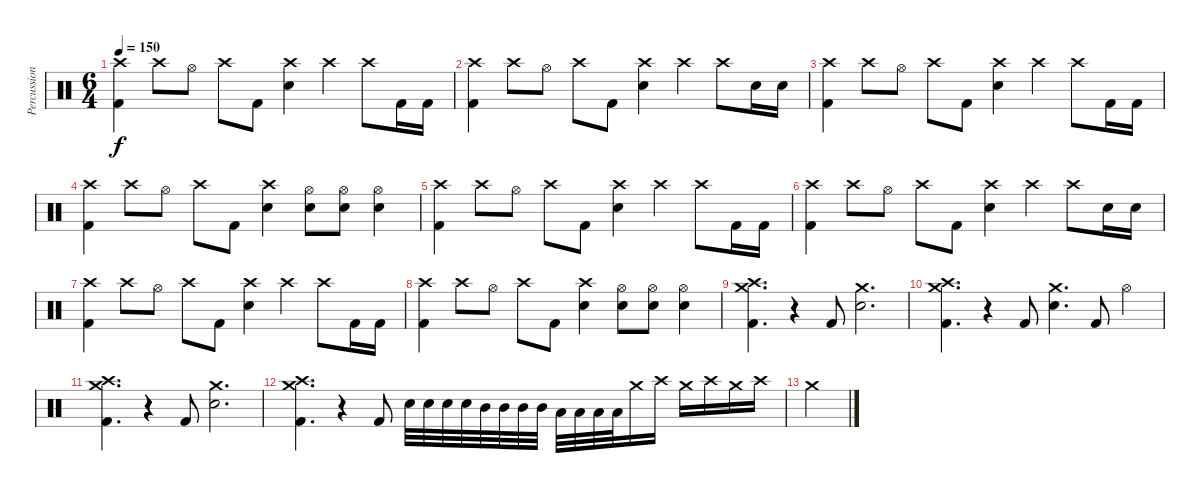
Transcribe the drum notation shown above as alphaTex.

\track ("Percussion" "Percussion") {instrument percussion}
\staff {score}
\articulation defaults
\ts (6 4)
\tempo 150
\clef neutral
\ks c
("Crash high (hit)" "Kick (hit) 2").4{dy f} "Crash high (hit)".8 "Hi-Hat (open)".8 "Crash high (hit)".8 "Kick (hit) 2".8 ("Crash high (hit)" "Electric Snare (hit)").4 "Crash high (hit)".4 "Crash high (hit)".8 "Kick (hit) 2".16 "Kick (hit) 2".16 |
("Crash high (hit)" "Kick (hit) 2").4 "Crash high (hit)".8 "Hi-Hat (open)".8 "Crash high (hit)".8 "Kick (hit) 2".8 ("Crash high (hit)" "Electric Snare (hit)").4 "Crash high (hit)".4 "Crash high (hit)".8 "Electric Snare (hit)".16 "Electric Snare (hit)".16 |
("Crash high (hit)" "Kick (hit) 2").4 "Crash high (hit)".8 "Hi-Hat (open)".8 "Crash high (hit)".8 "Kick (hit) 2".8 ("Crash high (hit)" "Electric Snare (hit)").4 "Crash high (hit)".4 "Crash high (hit)".8 "Kick (hit) 2".16 "Kick (hit) 2".16 |
("Crash high (hit)" "Kick (hit) 2").4 "Crash high (hit)".8 "Hi-Hat (open)".8 "Crash high (hit)".8 "Kick (hit) 2".8 ("Crash high (hit)" "Electric Snare (hit)").4 ("Hi-Hat (open)" "Electric Snare (hit)").8 ("Hi-Hat (open)" "Electric Snare (hit)").8 ("Hi-Hat (open)" "Electric Snare (hit)").4 |
("Crash high (hit)" "Kick (hit) 2").4 "Crash high (hit)".8 "Hi-Hat (open)".8 "Crash high (hit)".8 "Kick (hit) 2".8 ("Crash high (hit)" "Electric Snare (hit)").4 "Crash high (hit)".4 "Crash high (hit)".8 "Kick (hit) 2".16 "Kick (hit) 2".16 |
("Crash high (hit)" "Kick (hit) 2").4 "Crash high (hit)".8 "Hi-Hat (open)".8 "Crash high (hit)".8 "Kick (hit) 2".8 ("Crash high (hit)" "Electric Snare (hit)").4 "Crash high (hit)".4 "Crash high (hit)".8 "Electric Snare (hit)".16 "Electric Snare (hit)".16 |
("Crash high (hit)" "Kick (hit) 2").4 "Crash high (hit)".8 "Hi-Hat (open)".8 "Crash high (hit)".8 "Kick (hit) 2".8 ("Crash high (hit)" "Electric Snare (hit)").4 "Crash high (hit)".4 "Crash high (hit)".8 "Kick (hit) 2".16 "Kick (hit) 2".16 |
("Crash high (hit)" "Kick (hit) 2").4 "Crash high (hit)".8 "Hi-Hat (open)".8 "Crash high (hit)".8 "Kick (hit) 2".8 ("Crash high (hit)" "Electric Snare (hit)").4 ("Hi-Hat (open)" "Electric Snare (hit)").8 ("Hi-Hat (open)" "Electric Snare (hit)").8 ("Hi-Hat (open)" "Electric Snare (hit)").4 |
("Crash medium (hit)" "Crash high (hit)" "Kick (hit) 2").4{d} r.4 "Kick (hit) 2".8 ("Crash medium (hit)" "Electric Snare (hit)").2{d} |
("Crash medium (hit)" "Crash high (hit)" "Kick (hit) 2").4{d} r.4 "Kick (hit) 2".8 ("Crash medium (hit)" "Electric Snare (hit)").4{d} "Kick (hit) 2".8 "Hi-Hat (open)".4 |
("Crash medium (hit)" "Crash high (hit)" "Kick (hit) 2").4{d} r.4 "Kick (hit) 2".8 ("Crash medium (hit)" "Electric Snare (hit)").2{d} |
("Crash medium (hit)" "Crash high (hit)" "Kick (hit) 2").4{d} r.4 "Kick (hit) 2".8 "Electric Snare (hit)".32 "Electric Snare (hit)".32 "Electric Snare (hit)".32 "Electric Snare (hit)".32 "Mid Tom (hit)".32 "Mid Tom (hit)".32 "Mid Tom (hit)".32 "Mid Tom (hit)".32 "Low Floor Tom (hit)".32 "Low Floor Tom (hit)".32 "Low Floor Tom (hit)".32 "Low Floor Tom (hit)".32 "Crash medium (hit)".16 "Crash high (hit)".16 "Crash medium (hit)".16 "Crash high (hit)".16 "Crash medium (hit)".16 "Crash high (hit)".16 |
"Crash medium (hit)".4
